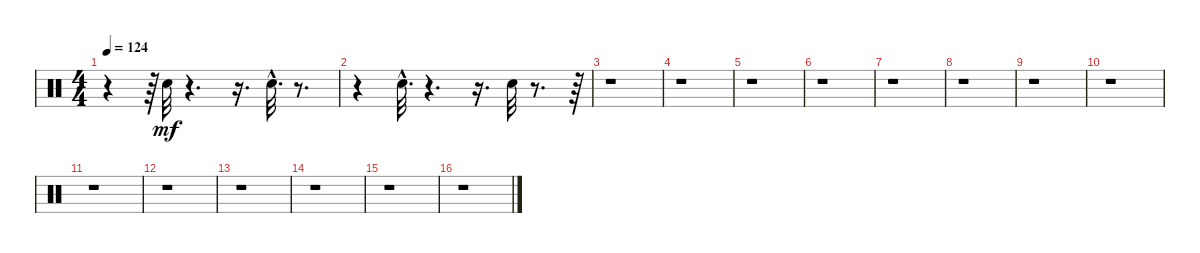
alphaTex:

\track "" {instrument percussion}
\staff {score}
\articulation defaults
\ts (4 4)
\tempo 124
\clef neutral
\ks c
r.4{dy mf} r.64 "Electric Snare (hit)".32 r.4{d} r.16{d} "Electric Snare (hit)"{hac}.32{d} r.8{d} |
r.4 "Electric Snare (hit)"{hac}.32{d} r.4{d} r.16{d} "Electric Snare (hit)".32 r.8{d} r.64 |
r.1 |
r.1 |
r.1 |
r.1 |
r.1 |
r.1 |
r.1 |
r.1 |
r.1 |
r.1 |
r.1 |
r.1 |
r.1 |
r.1
